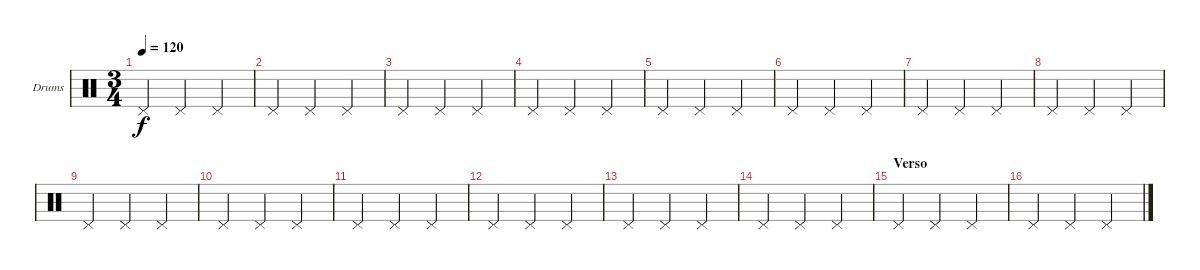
\bracketExtendMode groupsimilarinstruments
\firstSystemTrackNameOrientation horizontal
\otherSystemsTrackNameOrientation horizontal
\track ("Drumkit" "Drums") {instrument percussion}
\staff {score}
\articulation defaults
\ts (3 4)
\tempo 120
\clef neutral
\ks c "Pedal Hi-Hat (hit)".4{dy f} "Pedal Hi-Hat (hit)".4 "Pedal Hi-Hat (hit)".4
|
"Pedal Hi-Hat (hit)".4 "Pedal Hi-Hat (hit)".4 "Pedal Hi-Hat (hit)".4 |
"Pedal Hi-Hat (hit)".4 "Pedal Hi-Hat (hit)".4 "Pedal Hi-Hat (hit)".4 |
"Pedal Hi-Hat (hit)".4 "Pedal Hi-Hat (hit)".4 "Pedal Hi-Hat (hit)".4 |
"Pedal Hi-Hat (hit)".4 "Pedal Hi-Hat (hit)".4 "Pedal Hi-Hat (hit)".4 |
"Pedal Hi-Hat (hit)".4 "Pedal Hi-Hat (hit)".4 "Pedal Hi-Hat (hit)".4 |
"Pedal Hi-Hat (hit)".4 "Pedal Hi-Hat (hit)".4 "Pedal Hi-Hat (hit)".4 |
"Pedal Hi-Hat (hit)".4 "Pedal Hi-Hat (hit)".4 "Pedal Hi-Hat (hit)".4 |
"Pedal Hi-Hat (hit)".4 "Pedal Hi-Hat (hit)".4 "Pedal Hi-Hat (hit)".4 |
"Pedal Hi-Hat (hit)".4 "Pedal Hi-Hat (hit)".4 "Pedal Hi-Hat (hit)".4 |
"Pedal Hi-Hat (hit)".4 "Pedal Hi-Hat (hit)".4 "Pedal Hi-Hat (hit)".4 |
"Pedal Hi-Hat (hit)".4 "Pedal Hi-Hat (hit)".4 "Pedal Hi-Hat (hit)".4 |
"Pedal Hi-Hat (hit)".4 "Pedal Hi-Hat (hit)".4 "Pedal Hi-Hat (hit)".4 |
"Pedal Hi-Hat (hit)".4 "Pedal Hi-Hat (hit)".4 "Pedal Hi-Hat (hit)".4 |
\section ("" "Verso")
"Pedal Hi-Hat (hit)".4 "Pedal Hi-Hat (hit)".4 "Pedal Hi-Hat (hit)".4 |
"Pedal Hi-Hat (hit)".4 "Pedal Hi-Hat (hit)".4 "Pedal Hi-Hat (hit)".4
